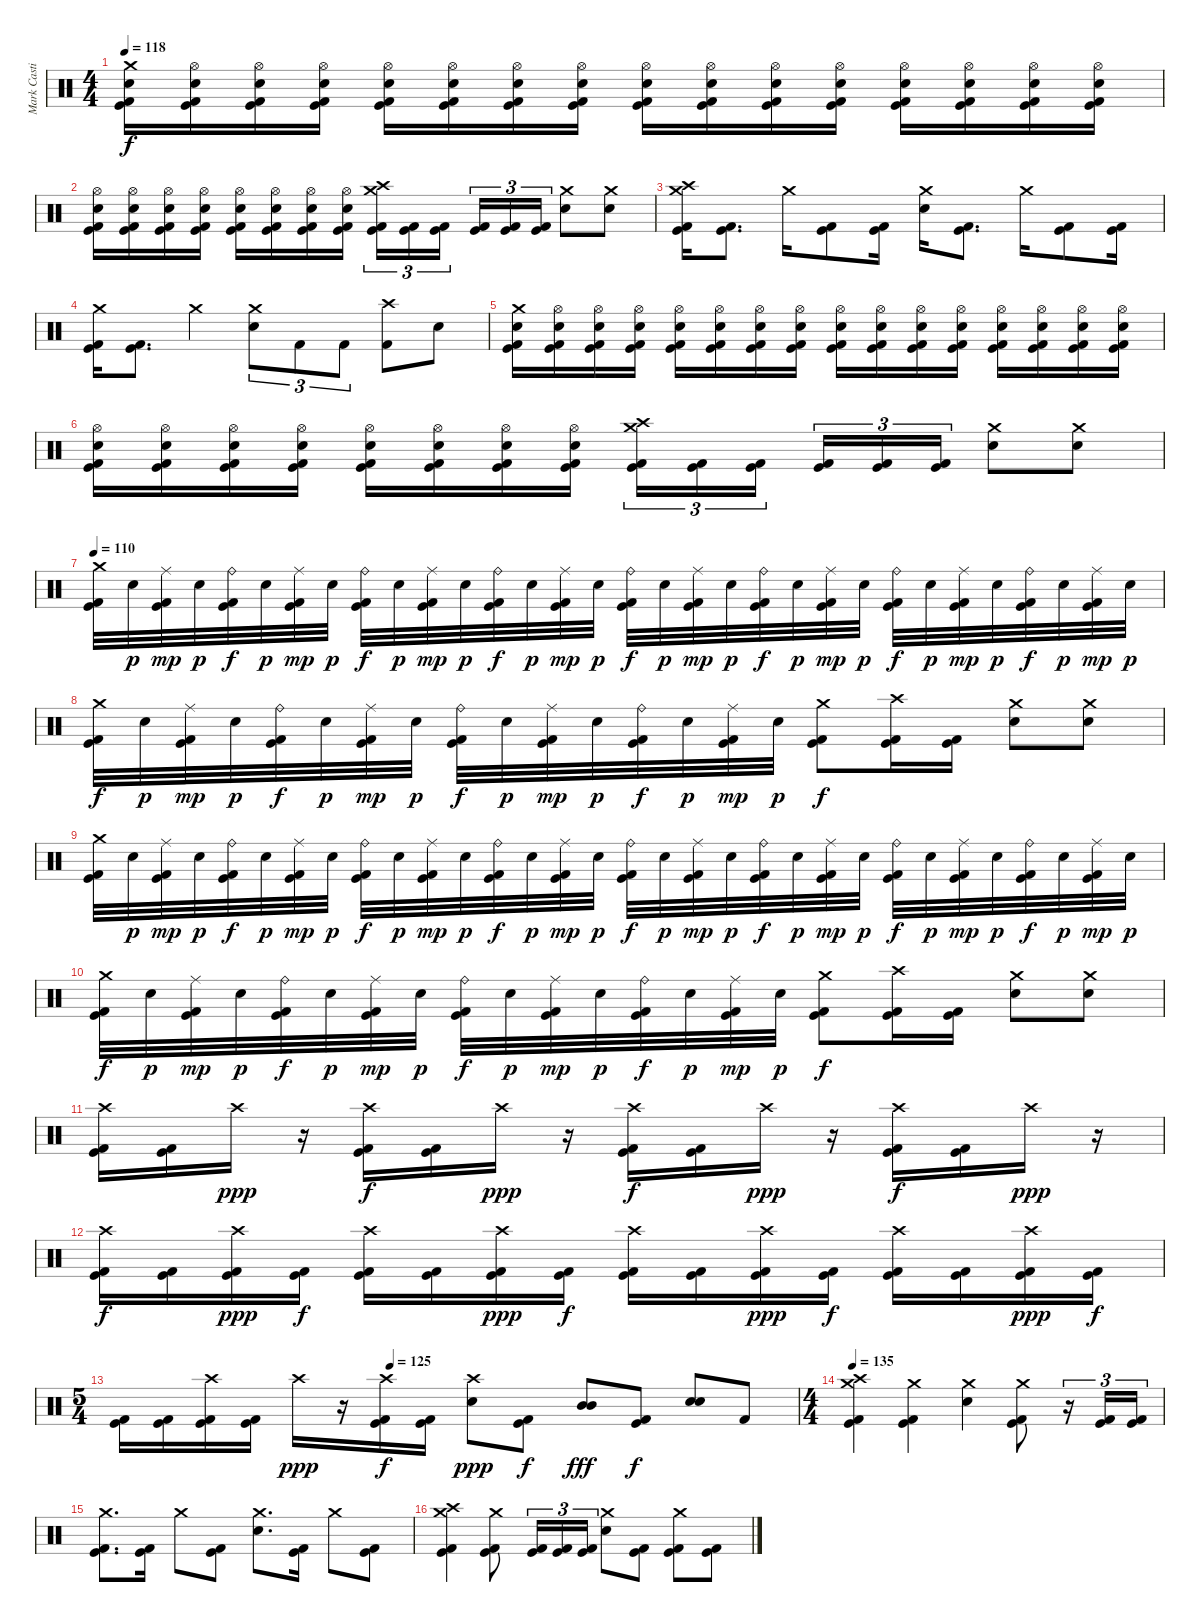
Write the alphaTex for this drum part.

\track ("Mark Castillo" "Mark Casti") {instrument percussion}
\staff {score}
\articulation defaults
\ts (4 4)
\tempo 118
\clef neutral
\ks c
("Crash medium (hit)" "Electric Snare (hit)" "Kick (hit)" "Kick (hit) 2").16{dy f} ("Hi-Hat (open)" "Electric Snare (hit)" "Kick (hit)" "Kick (hit) 2").16 ("Hi-Hat (open)" "Electric Snare (hit)" "Kick (hit)" "Kick (hit) 2").16 ("Hi-Hat (open)" "Electric Snare (hit)" "Kick (hit)" "Kick (hit) 2").16 ("Hi-Hat (open)" "Electric Snare (hit)" "Kick (hit)" "Kick (hit) 2").16 ("Hi-Hat (open)" "Electric Snare (hit)" "Kick (hit)" "Kick (hit) 2").16 ("Hi-Hat (open)" "Electric Snare (hit)" "Kick (hit)" "Kick (hit) 2").16 ("Hi-Hat (open)" "Electric Snare (hit)" "Kick (hit)" "Kick (hit) 2").16 ("Hi-Hat (open)" "Electric Snare (hit)" "Kick (hit)" "Kick (hit) 2").16 ("Hi-Hat (open)" "Electric Snare (hit)" "Kick (hit)" "Kick (hit) 2").16 ("Hi-Hat (open)" "Electric Snare (hit)" "Kick (hit)" "Kick (hit) 2").16 ("Hi-Hat (open)" "Electric Snare (hit)" "Kick (hit)" "Kick (hit) 2").16 ("Hi-Hat (open)" "Electric Snare (hit)" "Kick (hit)" "Kick (hit) 2").16 ("Hi-Hat (open)" "Electric Snare (hit)" "Kick (hit)" "Kick (hit) 2").16 ("Hi-Hat (open)" "Electric Snare (hit)" "Kick (hit)" "Kick (hit) 2").16 ("Hi-Hat (open)" "Electric Snare (hit)" "Kick (hit)" "Kick (hit) 2").16 |
("Hi-Hat (open)" "Electric Snare (hit)" "Kick (hit)" "Kick (hit) 2").16 ("Hi-Hat (open)" "Electric Snare (hit)" "Kick (hit)" "Kick (hit) 2").16 ("Hi-Hat (open)" "Electric Snare (hit)" "Kick (hit)" "Kick (hit) 2").16 ("Hi-Hat (open)" "Electric Snare (hit)" "Kick (hit)" "Kick (hit) 2").16 ("Hi-Hat (open)" "Electric Snare (hit)" "Kick (hit)" "Kick (hit) 2").16 ("Hi-Hat (open)" "Electric Snare (hit)" "Kick (hit)" "Kick (hit) 2").16 ("Hi-Hat (open)" "Electric Snare (hit)" "Kick (hit)" "Kick (hit) 2").16 ("Hi-Hat (open)" "Electric Snare (hit)" "Kick (hit)" "Kick (hit) 2").16 ("Crash medium (hit)" "Crash high (hit)" "Kick (hit)" "Kick (hit) 2").16{tu (3 2)} ("Kick (hit)" "Kick (hit) 2").16{tu (3 2)} ("Kick (hit)" "Kick (hit) 2").16{tu (3 2) beam splitsecondary} ("Kick (hit)" "Kick (hit) 2").16{tu (3 2)} ("Kick (hit)" "Kick (hit) 2").16{tu (3 2)} ("Kick (hit)" "Kick (hit) 2").16{tu (3 2)} ("Crash medium (hit)" "Electric Snare (hit)").8 ("Crash medium (hit)" "Electric Snare (hit)").8 |
("Crash medium (hit)" "Crash high (hit)" "Kick (hit)" "Kick (hit) 2").16 ("Kick (hit)" "Kick (hit) 2").8{d} "Crash medium (hit)".16 ("Kick (hit)" "Kick (hit) 2").8 ("Kick (hit)" "Kick (hit) 2").16 ("Crash medium (hit)" "Electric Snare (hit)").16 ("Kick (hit)" "Kick (hit) 2").8{d} "Crash medium (hit)".16 ("Kick (hit)" "Kick (hit) 2").8 ("Kick (hit)" "Kick (hit) 2").16 |
("Crash medium (hit)" "Kick (hit)" "Kick (hit) 2").16 ("Kick (hit)" "Kick (hit) 2").8{d} "Crash medium (hit)".4 ("Crash medium (hit)" "Electric Snare (hit)").8{tu (3 2)} "Kick (hit) 2".8{tu (3 2)} "Kick (hit) 2".8{tu (3 2)} ("Crash high (hit)" "Kick (hit) 2").8 "Electric Snare (hit)".8 |
("Crash medium (hit)" "Electric Snare (hit)" "Kick (hit)" "Kick (hit) 2").16 ("Hi-Hat (open)" "Electric Snare (hit)" "Kick (hit)" "Kick (hit) 2").16 ("Hi-Hat (open)" "Electric Snare (hit)" "Kick (hit)" "Kick (hit) 2").16 ("Hi-Hat (open)" "Electric Snare (hit)" "Kick (hit)" "Kick (hit) 2").16 ("Hi-Hat (open)" "Electric Snare (hit)" "Kick (hit)" "Kick (hit) 2").16 ("Hi-Hat (open)" "Electric Snare (hit)" "Kick (hit)" "Kick (hit) 2").16 ("Hi-Hat (open)" "Electric Snare (hit)" "Kick (hit)" "Kick (hit) 2").16 ("Hi-Hat (open)" "Electric Snare (hit)" "Kick (hit)" "Kick (hit) 2").16 ("Hi-Hat (open)" "Electric Snare (hit)" "Kick (hit)" "Kick (hit) 2").16 ("Hi-Hat (open)" "Electric Snare (hit)" "Kick (hit)" "Kick (hit) 2").16 ("Hi-Hat (open)" "Electric Snare (hit)" "Kick (hit)" "Kick (hit) 2").16 ("Hi-Hat (open)" "Electric Snare (hit)" "Kick (hit)" "Kick (hit) 2").16 ("Hi-Hat (open)" "Electric Snare (hit)" "Kick (hit)" "Kick (hit) 2").16 ("Hi-Hat (open)" "Electric Snare (hit)" "Kick (hit)" "Kick (hit) 2").16 ("Hi-Hat (open)" "Electric Snare (hit)" "Kick (hit)" "Kick (hit) 2").16 ("Hi-Hat (open)" "Electric Snare (hit)" "Kick (hit)" "Kick (hit) 2").16 |
("Hi-Hat (open)" "Electric Snare (hit)" "Kick (hit)" "Kick (hit) 2").16 ("Hi-Hat (open)" "Electric Snare (hit)" "Kick (hit)" "Kick (hit) 2").16 ("Hi-Hat (open)" "Electric Snare (hit)" "Kick (hit)" "Kick (hit) 2").16 ("Hi-Hat (open)" "Electric Snare (hit)" "Kick (hit)" "Kick (hit) 2").16 ("Hi-Hat (open)" "Electric Snare (hit)" "Kick (hit)" "Kick (hit) 2").16 ("Hi-Hat (open)" "Electric Snare (hit)" "Kick (hit)" "Kick (hit) 2").16 ("Hi-Hat (open)" "Electric Snare (hit)" "Kick (hit)" "Kick (hit) 2").16 ("Hi-Hat (open)" "Electric Snare (hit)" "Kick (hit)" "Kick (hit) 2").16 ("Crash medium (hit)" "Crash high (hit)" "Kick (hit)" "Kick (hit) 2").16{tu (3 2)} ("Kick (hit)" "Kick (hit) 2").16{tu (3 2)} ("Kick (hit)" "Kick (hit) 2").16{tu (3 2) beam splitsecondary} ("Kick (hit)" "Kick (hit) 2").16{tu (3 2)} ("Kick (hit)" "Kick (hit) 2").16{tu (3 2)} ("Kick (hit)" "Kick (hit) 2").16{tu (3 2)} ("Crash medium (hit)" "Electric Snare (hit)").8 ("Crash medium (hit)" "Electric Snare (hit)").8 |
\tempo 110
("Crash medium (hit)" "Kick (hit)" "Kick (hit) 2").32 "Electric Snare (hit)".32{dy p} ("Ride (middle)" "Kick (hit)" "Kick (hit) 2").32{dy mp} "Electric Snare (hit)".32{dy p} ("Ride (bell)" "Kick (hit)" "Kick (hit) 2").32{dy f} "Electric Snare (hit)".32{dy p} ("Ride (middle)" "Kick (hit)" "Kick (hit) 2").32{dy mp} "Electric Snare (hit)".32{dy p} ("Ride (bell)" "Kick (hit)" "Kick (hit) 2").32{dy f} "Electric Snare (hit)".32{dy p} ("Ride (middle)" "Kick (hit)" "Kick (hit) 2").32{dy mp} "Electric Snare (hit)".32{dy p} ("Ride (bell)" "Kick (hit)" "Kick (hit) 2").32{dy f} "Electric Snare (hit)".32{dy p} ("Ride (middle)" "Kick (hit)" "Kick (hit) 2").32{dy mp} "Electric Snare (hit)".32{dy p} ("Ride (bell)" "Kick (hit)" "Kick (hit) 2").32{dy f} "Electric Snare (hit)".32{dy p} ("Ride (middle)" "Kick (hit)" "Kick (hit) 2").32{dy mp} "Electric Snare (hit)".32{dy p} ("Ride (bell)" "Kick (hit)" "Kick (hit) 2").32{dy f} "Electric Snare (hit)".32{dy p} ("Ride (middle)" "Kick (hit)" "Kick (hit) 2").32{dy mp} "Electric Snare (hit)".32{dy p} ("Ride (bell)" "Kick (hit)" "Kick (hit) 2").32{dy f} "Electric Snare (hit)".32{dy p} ("Ride (middle)" "Kick (hit)" "Kick (hit) 2").32{dy mp} "Electric Snare (hit)".32{dy p} ("Ride (bell)" "Kick (hit)" "Kick (hit) 2").32{dy f} "Electric Snare (hit)".32{dy p} ("Ride (middle)" "Kick (hit)" "Kick (hit) 2").32{dy mp} "Electric Snare (hit)".32{dy p} |
("Crash medium (hit)" "Kick (hit)" "Kick (hit) 2").32{dy f} "Electric Snare (hit)".32{dy p} ("Ride (middle)" "Kick (hit)" "Kick (hit) 2").32{dy mp} "Electric Snare (hit)".32{dy p} ("Ride (bell)" "Kick (hit)" "Kick (hit) 2").32{dy f} "Electric Snare (hit)".32{dy p} ("Ride (middle)" "Kick (hit)" "Kick (hit) 2").32{dy mp} "Electric Snare (hit)".32{dy p} ("Ride (bell)" "Kick (hit)" "Kick (hit) 2").32{dy f} "Electric Snare (hit)".32{dy p} ("Ride (middle)" "Kick (hit)" "Kick (hit) 2").32{dy mp} "Electric Snare (hit)".32{dy p} ("Ride (bell)" "Kick (hit)" "Kick (hit) 2").32{dy f} "Electric Snare (hit)".32{dy p} ("Ride (middle)" "Kick (hit)" "Kick (hit) 2").32{dy mp} "Electric Snare (hit)".32{dy p} ("Crash medium (hit)" "Kick (hit)" "Kick (hit) 2").8{dy f} ("Crash high (hit)" "Kick (hit)" "Kick (hit) 2").16 ("Kick (hit)" "Kick (hit) 2").16 ("Crash medium (hit)" "Electric Snare (hit)").8 ("Crash medium (hit)" "Electric Snare (hit)").8 |
("Crash medium (hit)" "Kick (hit)" "Kick (hit) 2").32 "Electric Snare (hit)".32{dy p} ("Ride (middle)" "Kick (hit)" "Kick (hit) 2").32{dy mp} "Electric Snare (hit)".32{dy p} ("Ride (bell)" "Kick (hit)" "Kick (hit) 2").32{dy f} "Electric Snare (hit)".32{dy p} ("Ride (middle)" "Kick (hit)" "Kick (hit) 2").32{dy mp} "Electric Snare (hit)".32{dy p} ("Ride (bell)" "Kick (hit)" "Kick (hit) 2").32{dy f} "Electric Snare (hit)".32{dy p} ("Ride (middle)" "Kick (hit)" "Kick (hit) 2").32{dy mp} "Electric Snare (hit)".32{dy p} ("Ride (bell)" "Kick (hit)" "Kick (hit) 2").32{dy f} "Electric Snare (hit)".32{dy p} ("Ride (middle)" "Kick (hit)" "Kick (hit) 2").32{dy mp} "Electric Snare (hit)".32{dy p} ("Ride (bell)" "Kick (hit)" "Kick (hit) 2").32{dy f} "Electric Snare (hit)".32{dy p} ("Ride (middle)" "Kick (hit)" "Kick (hit) 2").32{dy mp} "Electric Snare (hit)".32{dy p} ("Ride (bell)" "Kick (hit)" "Kick (hit) 2").32{dy f} "Electric Snare (hit)".32{dy p} ("Ride (middle)" "Kick (hit)" "Kick (hit) 2").32{dy mp} "Electric Snare (hit)".32{dy p} ("Ride (bell)" "Kick (hit)" "Kick (hit) 2").32{dy f} "Electric Snare (hit)".32{dy p} ("Ride (middle)" "Kick (hit)" "Kick (hit) 2").32{dy mp} "Electric Snare (hit)".32{dy p} ("Ride (bell)" "Kick (hit)" "Kick (hit) 2").32{dy f} "Electric Snare (hit)".32{dy p} ("Ride (middle)" "Kick (hit)" "Kick (hit) 2").32{dy mp} "Electric Snare (hit)".32{dy p} |
("Crash medium (hit)" "Kick (hit)" "Kick (hit) 2").32{dy f} "Electric Snare (hit)".32{dy p} ("Ride (middle)" "Kick (hit)" "Kick (hit) 2").32{dy mp} "Electric Snare (hit)".32{dy p} ("Ride (bell)" "Kick (hit)" "Kick (hit) 2").32{dy f} "Electric Snare (hit)".32{dy p} ("Ride (middle)" "Kick (hit)" "Kick (hit) 2").32{dy mp} "Electric Snare (hit)".32{dy p} ("Ride (bell)" "Kick (hit)" "Kick (hit) 2").32{dy f} "Electric Snare (hit)".32{dy p} ("Ride (middle)" "Kick (hit)" "Kick (hit) 2").32{dy mp} "Electric Snare (hit)".32{dy p} ("Ride (bell)" "Kick (hit)" "Kick (hit) 2").32{dy f} "Electric Snare (hit)".32{dy p} ("Ride (middle)" "Kick (hit)" "Kick (hit) 2").32{dy mp} "Electric Snare (hit)".32{dy p} ("Crash medium (hit)" "Kick (hit)" "Kick (hit) 2").8{dy f} ("Crash high (hit)" "Kick (hit)" "Kick (hit) 2").16 ("Kick (hit)" "Kick (hit) 2").16 ("Crash medium (hit)" "Electric Snare (hit)").8 ("Crash medium (hit)" "Electric Snare (hit)").8 |
("Crash high (hit)" "Kick (hit)" "Kick (hit) 2").16 ("Kick (hit)" "Kick (hit) 2").16 "Crash high (hit)".16{dy ppp} r.16 ("Crash high (hit)" "Kick (hit)" "Kick (hit) 2").16{dy f} ("Kick (hit)" "Kick (hit) 2").16 "Crash high (hit)".16{dy ppp} r.16 ("Crash high (hit)" "Kick (hit)" "Kick (hit) 2").16{dy f} ("Kick (hit)" "Kick (hit) 2").16 "Crash high (hit)".16{dy ppp} r.16 ("Crash high (hit)" "Kick (hit)" "Kick (hit) 2").16{dy f} ("Kick (hit)" "Kick (hit) 2").16 "Crash high (hit)".16{dy ppp} r.16 |
("Crash high (hit)" "Kick (hit)" "Kick (hit) 2").16{dy f} ("Kick (hit)" "Kick (hit) 2").16 ("Crash high (hit)" "Kick (hit)" "Kick (hit) 2").16{dy ppp} ("Kick (hit)" "Kick (hit) 2").16{dy f} ("Crash high (hit)" "Kick (hit)" "Kick (hit) 2").16 ("Kick (hit)" "Kick (hit) 2").16 ("Crash high (hit)" "Kick (hit)" "Kick (hit) 2").16{dy ppp} ("Kick (hit)" "Kick (hit) 2").16{dy f} ("Crash high (hit)" "Kick (hit)" "Kick (hit) 2").16 ("Kick (hit)" "Kick (hit) 2").16 ("Crash high (hit)" "Kick (hit)" "Kick (hit) 2").16{dy ppp} ("Kick (hit)" "Kick (hit) 2").16{dy f} ("Crash high (hit)" "Kick (hit)" "Kick (hit) 2").16 ("Kick (hit)" "Kick (hit) 2").16 ("Crash high (hit)" "Kick (hit)" "Kick (hit) 2").16{dy ppp} ("Kick (hit)" "Kick (hit) 2").16{dy f} |
\ts (5 4)
\tempo (125 0.4)
("Kick (hit)" "Kick (hit) 2").16 ("Kick (hit)" "Kick (hit) 2").16 ("Crash high (hit)" "Kick (hit)" "Kick (hit) 2").16 ("Kick (hit)" "Kick (hit) 2").16 "Crash high (hit)".16{dy ppp} r.16 ("Crash high (hit)" "Kick (hit)" "Kick (hit) 2").16{dy f} ("Kick (hit)" "Kick (hit) 2").16 ("Crash high (hit)" "Electric Snare (hit)").8{dy ppp} ("Kick (hit)" "Kick (hit) 2").8{dy f} ("Mid Tom (hit)" "Mid Tom (hit)").8{bu 240 dy fff} ("Kick (hit)" "Kick (hit) 2").8{dy f} ("Electric Snare (hit)" "Electric Snare (hit)").8{bu 240} "Kick (hit) 2".8 |
\ts (4 4)
\tempo 135
("Crash medium (hit)" "Crash high (hit)" "Kick (hit)" "Kick (hit) 2").4 ("Crash medium (hit)" "Kick (hit)" "Kick (hit) 2").4 ("Crash medium (hit)" "Electric Snare (hit)").4 ("Crash medium (hit)" "Kick (hit)" "Kick (hit) 2").8 r.16{tu (3 2)} ("Kick (hit)" "Kick (hit) 2").16{tu (3 2)} ("Kick (hit)" "Kick (hit) 2").16{tu (3 2)} |
("Crash medium (hit)" "Kick (hit)" "Kick (hit) 2").8{d} ("Kick (hit)" "Kick (hit) 2").16 "Crash medium (hit)".8 ("Kick (hit)" "Kick (hit) 2").8 ("Crash medium (hit)" "Electric Snare (hit)").8{d} ("Kick (hit)" "Kick (hit) 2").16 "Crash medium (hit)".8 ("Kick (hit)" "Kick (hit) 2").8 |
("Crash medium (hit)" "Crash high (hit)" "Kick (hit)" "Kick (hit) 2").4 ("Crash medium (hit)" "Kick (hit)" "Kick (hit) 2").8 ("Kick (hit)" "Kick (hit) 2").16{tu (3 2)} ("Kick (hit)" "Kick (hit) 2").16{tu (3 2)} ("Kick (hit)" "Kick (hit) 2").16{tu (3 2)} ("Crash medium (hit)" "Electric Snare (hit)").8 ("Kick (hit)" "Kick (hit) 2").8 ("Crash medium (hit)" "Kick (hit)" "Kick (hit) 2").8 ("Kick (hit)" "Kick (hit) 2").8
